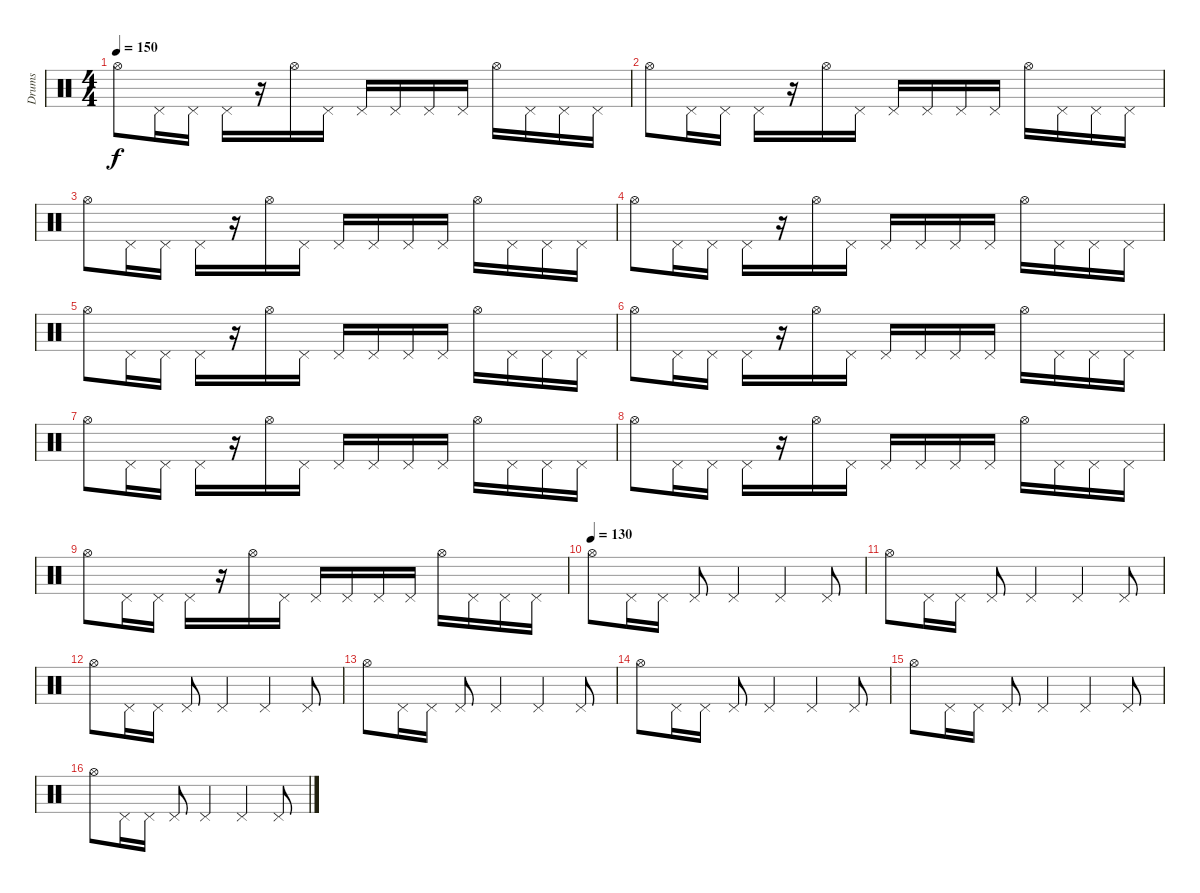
\track ("Drums" "Drums") {instrument percussion}
\staff {score}
\articulation defaults
\ts (4 4)
\tempo 150
\clef neutral
\ks c "Hi-Hat (open)".8{dy f} "Pedal Hi-Hat (hit)".16 "Pedal Hi-Hat (hit)".16 "Pedal Hi-Hat (hit)".16
r.16 "Hi-Hat (open)".16 "Pedal Hi-Hat (hit)".16 "Pedal Hi-Hat (hit)".16 "Pedal Hi-Hat (hit)".16 "Pedal Hi-Hat (hit)".16 "Pedal Hi-Hat (hit)".16 "Hi-Hat (open)".16 "Pedal Hi-Hat (hit)".16 "Pedal Hi-Hat (hit)".16 "Pedal Hi-Hat (hit)".16 |
"Hi-Hat (open)".8 "Pedal Hi-Hat (hit)".16 "Pedal Hi-Hat (hit)".16 "Pedal Hi-Hat (hit)".16 r.16 "Hi-Hat (open)".16 "Pedal Hi-Hat (hit)".16 "Pedal Hi-Hat (hit)".16 "Pedal Hi-Hat (hit)".16 "Pedal Hi-Hat (hit)".16 "Pedal Hi-Hat (hit)".16 "Hi-Hat (open)".16 "Pedal Hi-Hat (hit)".16 "Pedal Hi-Hat (hit)".16 "Pedal Hi-Hat (hit)".16 |
"Hi-Hat (open)".8 "Pedal Hi-Hat (hit)".16 "Pedal Hi-Hat (hit)".16 "Pedal Hi-Hat (hit)".16 r.16 "Hi-Hat (open)".16 "Pedal Hi-Hat (hit)".16 "Pedal Hi-Hat (hit)".16 "Pedal Hi-Hat (hit)".16 "Pedal Hi-Hat (hit)".16 "Pedal Hi-Hat (hit)".16 "Hi-Hat (open)".16 "Pedal Hi-Hat (hit)".16 "Pedal Hi-Hat (hit)".16 "Pedal Hi-Hat (hit)".16 |
"Hi-Hat (open)".8 "Pedal Hi-Hat (hit)".16 "Pedal Hi-Hat (hit)".16 "Pedal Hi-Hat (hit)".16 r.16 "Hi-Hat (open)".16 "Pedal Hi-Hat (hit)".16 "Pedal Hi-Hat (hit)".16 "Pedal Hi-Hat (hit)".16 "Pedal Hi-Hat (hit)".16 "Pedal Hi-Hat (hit)".16 "Hi-Hat (open)".16 "Pedal Hi-Hat (hit)".16 "Pedal Hi-Hat (hit)".16 "Pedal Hi-Hat (hit)".16 |
"Hi-Hat (open)".8 "Pedal Hi-Hat (hit)".16 "Pedal Hi-Hat (hit)".16 "Pedal Hi-Hat (hit)".16 r.16 "Hi-Hat (open)".16 "Pedal Hi-Hat (hit)".16 "Pedal Hi-Hat (hit)".16 "Pedal Hi-Hat (hit)".16 "Pedal Hi-Hat (hit)".16 "Pedal Hi-Hat (hit)".16 "Hi-Hat (open)".16 "Pedal Hi-Hat (hit)".16 "Pedal Hi-Hat (hit)".16 "Pedal Hi-Hat (hit)".16 |
"Hi-Hat (open)".8 "Pedal Hi-Hat (hit)".16 "Pedal Hi-Hat (hit)".16 "Pedal Hi-Hat (hit)".16 r.16 "Hi-Hat (open)".16 "Pedal Hi-Hat (hit)".16 "Pedal Hi-Hat (hit)".16 "Pedal Hi-Hat (hit)".16 "Pedal Hi-Hat (hit)".16 "Pedal Hi-Hat (hit)".16 "Hi-Hat (open)".16 "Pedal Hi-Hat (hit)".16 "Pedal Hi-Hat (hit)".16 "Pedal Hi-Hat (hit)".16 |
"Hi-Hat (open)".8 "Pedal Hi-Hat (hit)".16 "Pedal Hi-Hat (hit)".16 "Pedal Hi-Hat (hit)".16 r.16 "Hi-Hat (open)".16 "Pedal Hi-Hat (hit)".16 "Pedal Hi-Hat (hit)".16 "Pedal Hi-Hat (hit)".16 "Pedal Hi-Hat (hit)".16 "Pedal Hi-Hat (hit)".16 "Hi-Hat (open)".16 "Pedal Hi-Hat (hit)".16 "Pedal Hi-Hat (hit)".16 "Pedal Hi-Hat (hit)".16 |
"Hi-Hat (open)".8 "Pedal Hi-Hat (hit)".16 "Pedal Hi-Hat (hit)".16 "Pedal Hi-Hat (hit)".16 r.16 "Hi-Hat (open)".16 "Pedal Hi-Hat (hit)".16 "Pedal Hi-Hat (hit)".16 "Pedal Hi-Hat (hit)".16 "Pedal Hi-Hat (hit)".16 "Pedal Hi-Hat (hit)".16 "Hi-Hat (open)".16 "Pedal Hi-Hat (hit)".16 "Pedal Hi-Hat (hit)".16 "Pedal Hi-Hat (hit)".16 |
"Hi-Hat (open)".8 "Pedal Hi-Hat (hit)".16 "Pedal Hi-Hat (hit)".16 "Pedal Hi-Hat (hit)".16 r.16 "Hi-Hat (open)".16 "Pedal Hi-Hat (hit)".16 "Pedal Hi-Hat (hit)".16 "Pedal Hi-Hat (hit)".16 "Pedal Hi-Hat (hit)".16 "Pedal Hi-Hat (hit)".16 "Hi-Hat (open)".16 "Pedal Hi-Hat (hit)".16 "Pedal Hi-Hat (hit)".16 "Pedal Hi-Hat (hit)".16 |
\tempo (130)
"Hi-Hat (open)".8 "Pedal Hi-Hat (hit)".16 "Pedal Hi-Hat (hit)".16 "Pedal Hi-Hat (hit)".8 "Pedal Hi-Hat (hit)".4 "Pedal Hi-Hat (hit)".4 "Pedal Hi-Hat (hit)".8 |
"Hi-Hat (open)".8 "Pedal Hi-Hat (hit)".16 "Pedal Hi-Hat (hit)".16 "Pedal Hi-Hat (hit)".8 "Pedal Hi-Hat (hit)".4 "Pedal Hi-Hat (hit)".4 "Pedal Hi-Hat (hit)".8 |
"Hi-Hat (open)".8 "Pedal Hi-Hat (hit)".16 "Pedal Hi-Hat (hit)".16 "Pedal Hi-Hat (hit)".8 "Pedal Hi-Hat (hit)".4 "Pedal Hi-Hat (hit)".4 "Pedal Hi-Hat (hit)".8 |
"Hi-Hat (open)".8 "Pedal Hi-Hat (hit)".16 "Pedal Hi-Hat (hit)".16 "Pedal Hi-Hat (hit)".8 "Pedal Hi-Hat (hit)".4 "Pedal Hi-Hat (hit)".4 "Pedal Hi-Hat (hit)".8 |
"Hi-Hat (open)".8 "Pedal Hi-Hat (hit)".16 "Pedal Hi-Hat (hit)".16 "Pedal Hi-Hat (hit)".8 "Pedal Hi-Hat (hit)".4 "Pedal Hi-Hat (hit)".4 "Pedal Hi-Hat (hit)".8 |
"Hi-Hat (open)".8 "Pedal Hi-Hat (hit)".16 "Pedal Hi-Hat (hit)".16 "Pedal Hi-Hat (hit)".8 "Pedal Hi-Hat (hit)".4 "Pedal Hi-Hat (hit)".4 "Pedal Hi-Hat (hit)".8 |
"Hi-Hat (open)".8 "Pedal Hi-Hat (hit)".16 "Pedal Hi-Hat (hit)".16 "Pedal Hi-Hat (hit)".8 "Pedal Hi-Hat (hit)".4 "Pedal Hi-Hat (hit)".4 "Pedal Hi-Hat (hit)".8
